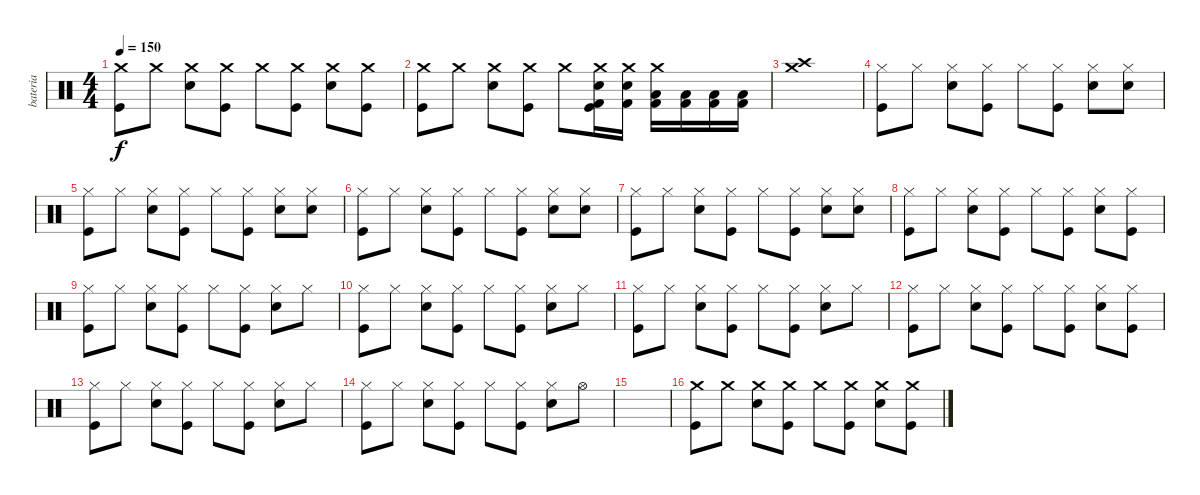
\track ("bateria" "bateria") {instrument percussion}
\staff {score}
\articulation defaults
\ts (4 4)
\tempo 150
\clef neutral
\ks c
("Crash medium (hit)" "Kick (hit)").8{dy f} "Crash medium (hit)".8 ("Crash medium (hit)" "Electric Snare (hit)").8 ("Crash medium (hit)" "Kick (hit)").8 "Crash medium (hit)".8 ("Crash medium (hit)" "Kick (hit)").8 ("Crash medium (hit)" "Electric Snare (hit)").8 ("Crash medium (hit)" "Kick (hit)").8 |
("Crash medium (hit)" "Kick (hit)").8 "Crash medium (hit)".8 ("Crash medium (hit)" "Electric Snare (hit)").8 ("Crash medium (hit)" "Kick (hit)").8 "Crash medium (hit)".8 ("Crash medium (hit)" "Electric Snare (hit)" "Kick (hit) 2" "Kick (hit)").16 ("Crash medium (hit)" "Electric Snare (hit)" "Kick (hit) 2").16 ("Crash medium (hit)" "Low Tom (hit)" "Kick (hit) 2").16 ("Low Tom (hit)" "Kick (hit) 2").16 ("Low Floor Tom (hit)" "Kick (hit) 2").16 ("Low Floor Tom (hit)" "Kick (hit) 2").16 |
("Crash high (hit)" "Crash medium (hit)").1 |
("Hi-Hat (closed)" "Kick (hit)").8 "Hi-Hat (closed)".8 ("Hi-Hat (closed)" "Electric Snare (hit)").8 ("Hi-Hat (closed)" "Kick (hit)").8 "Hi-Hat (closed)".8 ("Hi-Hat (closed)" "Kick (hit)").8 ("Hi-Hat (closed)" "Electric Snare (hit)").8 ("Hi-Hat (closed)" "Electric Snare (hit)").8 |
("Hi-Hat (closed)" "Kick (hit)").8 "Hi-Hat (closed)".8 ("Hi-Hat (closed)" "Electric Snare (hit)").8 ("Hi-Hat (closed)" "Kick (hit)").8 "Hi-Hat (closed)".8 ("Hi-Hat (closed)" "Kick (hit)").8 ("Hi-Hat (closed)" "Electric Snare (hit)").8 ("Hi-Hat (closed)" "Electric Snare (hit)").8 |
("Hi-Hat (closed)" "Kick (hit)").8 "Hi-Hat (closed)".8 ("Hi-Hat (closed)" "Electric Snare (hit)").8 ("Hi-Hat (closed)" "Kick (hit)").8 "Hi-Hat (closed)".8 ("Hi-Hat (closed)" "Kick (hit)").8 ("Hi-Hat (closed)" "Electric Snare (hit)").8 ("Hi-Hat (closed)" "Electric Snare (hit)").8 |
("Hi-Hat (closed)" "Kick (hit)").8 "Hi-Hat (closed)".8 ("Hi-Hat (closed)" "Electric Snare (hit)").8 ("Hi-Hat (closed)" "Kick (hit)").8 "Hi-Hat (closed)".8 ("Hi-Hat (closed)" "Kick (hit)").8 ("Hi-Hat (closed)" "Electric Snare (hit)").8 ("Hi-Hat (closed)" "Electric Snare (hit)").8 |
("Hi-Hat (closed)" "Kick (hit)").8 "Hi-Hat (closed)".8 ("Hi-Hat (closed)" "Electric Snare (hit)").8 ("Hi-Hat (closed)" "Kick (hit)").8 "Hi-Hat (closed)".8 ("Hi-Hat (closed)" "Kick (hit)").8 ("Hi-Hat (closed)" "Electric Snare (hit)").8 ("Hi-Hat (closed)" "Kick (hit)").8 |
("Hi-Hat (closed)" "Kick (hit)").8 "Hi-Hat (closed)".8 ("Hi-Hat (closed)" "Electric Snare (hit)").8 ("Hi-Hat (closed)" "Kick (hit)").8 "Hi-Hat (closed)".8 ("Hi-Hat (closed)" "Kick (hit)").8 ("Hi-Hat (closed)" "Electric Snare (hit)").8 "Hi-Hat (closed)".8 |
("Hi-Hat (closed)" "Kick (hit)").8 "Hi-Hat (closed)".8 ("Hi-Hat (closed)" "Electric Snare (hit)").8 ("Hi-Hat (closed)" "Kick (hit)").8 "Hi-Hat (closed)".8 ("Hi-Hat (closed)" "Kick (hit)").8 ("Hi-Hat (closed)" "Electric Snare (hit)").8 "Hi-Hat (closed)".8 |
("Hi-Hat (closed)" "Kick (hit)").8 "Hi-Hat (closed)".8 ("Hi-Hat (closed)" "Electric Snare (hit)").8 ("Hi-Hat (closed)" "Kick (hit)").8 "Hi-Hat (closed)".8 ("Hi-Hat (closed)" "Kick (hit)").8 ("Hi-Hat (closed)" "Electric Snare (hit)").8 "Hi-Hat (closed)".8 |
("Hi-Hat (closed)" "Kick (hit)").8 "Hi-Hat (closed)".8 ("Hi-Hat (closed)" "Electric Snare (hit)").8 ("Hi-Hat (closed)" "Kick (hit)").8 "Hi-Hat (closed)".8 ("Hi-Hat (closed)" "Kick (hit)").8 ("Hi-Hat (closed)" "Electric Snare (hit)").8 ("Hi-Hat (closed)" "Kick (hit)").8 |
("Hi-Hat (closed)" "Kick (hit)").8 "Hi-Hat (closed)".8 ("Hi-Hat (closed)" "Electric Snare (hit)").8 ("Hi-Hat (closed)" "Kick (hit)").8 "Hi-Hat (closed)".8 ("Hi-Hat (closed)" "Kick (hit)").8 ("Hi-Hat (closed)" "Electric Snare (hit)").8 "Hi-Hat (closed)".8 |
("Hi-Hat (closed)" "Kick (hit)").8 "Hi-Hat (closed)".8 ("Hi-Hat (closed)" "Electric Snare (hit)").8 ("Hi-Hat (closed)" "Kick (hit)").8 "Hi-Hat (closed)".8 ("Hi-Hat (closed)" "Kick (hit)").8 ("Hi-Hat (closed)" "Electric Snare (hit)").8 "Hi-Hat (open)".8 |
|
("Crash medium (hit)" "Kick (hit)").8 "Crash medium (hit)".8 ("Crash medium (hit)" "Electric Snare (hit)").8 ("Crash medium (hit)" "Kick (hit)").8 "Crash medium (hit)".8 ("Crash medium (hit)" "Kick (hit)").8 ("Crash medium (hit)" "Electric Snare (hit)").8 ("Crash medium (hit)" "Kick (hit)").8
